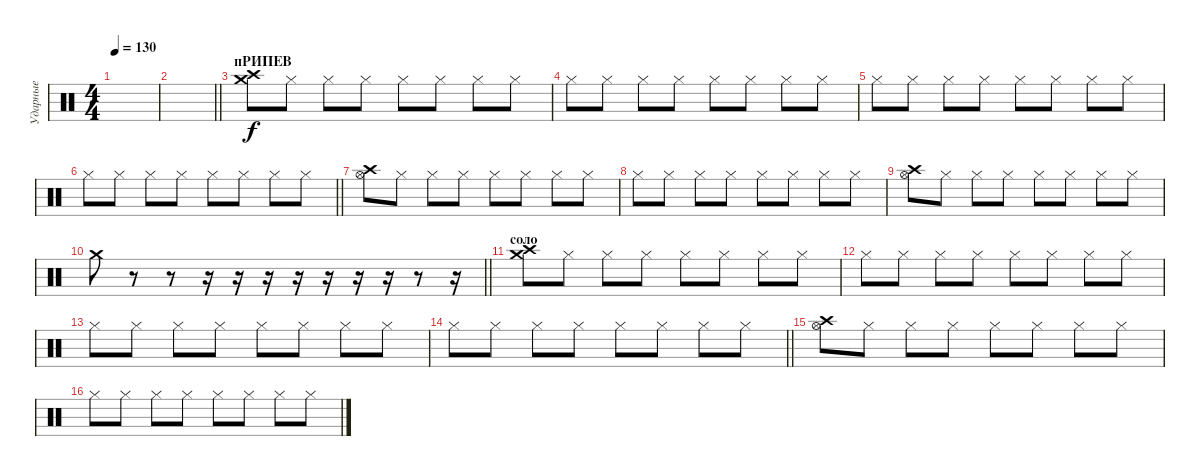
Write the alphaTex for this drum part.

\track ("Ударные" "Ударные") {instrument percussion}
\staff {score}
\articulation defaults
\ts (4 4)
\tempo 130
\clef neutral
\ks c
|
\barLineRight lightlight
|
\section ("" "пРИПЕВ")
("Crash high (hit)" "Crash medium (hit)").8 "Hi-Hat (closed)".8 "Hi-Hat (closed)".8 "Hi-Hat (closed)".8 "Hi-Hat (closed)".8 "Hi-Hat (closed)".8 "Hi-Hat (closed)".8 "Hi-Hat (closed)".8 |
"Hi-Hat (closed)".8 "Hi-Hat (closed)".8 "Hi-Hat (closed)".8 "Hi-Hat (closed)".8 "Hi-Hat (closed)".8 "Hi-Hat (closed)".8 "Hi-Hat (closed)".8 "Hi-Hat (closed)".8 |
"Hi-Hat (closed)".8 "Hi-Hat (closed)".8 "Hi-Hat (closed)".8 "Hi-Hat (closed)".8 "Hi-Hat (closed)".8 "Hi-Hat (closed)".8 "Hi-Hat (closed)".8 "Hi-Hat (closed)".8 |
\barLineRight lightlight "Hi-Hat (closed)".8 "Hi-Hat (closed)".8 "Hi-Hat (closed)".8 "Hi-Hat (closed)".8 "Hi-Hat (closed)".8 "Hi-Hat (closed)".8 "Hi-Hat (closed)".8 "Hi-Hat (closed)".8
|
("Hi-Hat (open)" "Crash high (hit)").8 "Hi-Hat (closed)".8 "Hi-Hat (closed)".8 "Hi-Hat (closed)".8 "Hi-Hat (closed)".8 "Hi-Hat (closed)".8 "Hi-Hat (closed)".8 "Hi-Hat (closed)".8 |
"Hi-Hat (closed)".8 "Hi-Hat (closed)".8 "Hi-Hat (closed)".8 "Hi-Hat (closed)".8 "Hi-Hat (closed)".8 "Hi-Hat (closed)".8 "Hi-Hat (closed)".8 "Hi-Hat (closed)".8 |
("Hi-Hat (open)" "Crash high (hit)").8 "Hi-Hat (closed)".8 "Hi-Hat (closed)".8 "Hi-Hat (closed)".8 "Hi-Hat (closed)".8 "Hi-Hat (closed)".8 "Hi-Hat (closed)".8 "Hi-Hat (closed)".8 |
\barLineRight lightlight "Crash medium (hit)".8
r.8 r.8 r.16 r.16 r.16 r.16 r.16 r.16 r.16 r.8 r.16 |
\section ("" "соло")
("Crash high (hit)" "Crash medium (hit)").8 "Hi-Hat (closed)".8 "Hi-Hat (closed)".8 "Hi-Hat (closed)".8 "Hi-Hat (closed)".8 "Hi-Hat (closed)".8 "Hi-Hat (closed)".8 "Hi-Hat (closed)".8 |
"Hi-Hat (closed)".8 "Hi-Hat (closed)".8 "Hi-Hat (closed)".8 "Hi-Hat (closed)".8 "Hi-Hat (closed)".8 "Hi-Hat (closed)".8 "Hi-Hat (closed)".8 "Hi-Hat (closed)".8 |
"Hi-Hat (closed)".8 "Hi-Hat (closed)".8 "Hi-Hat (closed)".8 "Hi-Hat (closed)".8 "Hi-Hat (closed)".8 "Hi-Hat (closed)".8 "Hi-Hat (closed)".8 "Hi-Hat (closed)".8 |
\barLineRight lightlight "Hi-Hat (closed)".8 "Hi-Hat (closed)".8 "Hi-Hat (closed)".8 "Hi-Hat (closed)".8 "Hi-Hat (closed)".8 "Hi-Hat (closed)".8 "Hi-Hat (closed)".8 "Hi-Hat (closed)".8
|
("Hi-Hat (open)" "Crash high (hit)").8 "Hi-Hat (closed)".8 "Hi-Hat (closed)".8 "Hi-Hat (closed)".8 "Hi-Hat (closed)".8 "Hi-Hat (closed)".8 "Hi-Hat (closed)".8 "Hi-Hat (closed)".8 |
"Hi-Hat (closed)".8 "Hi-Hat (closed)".8 "Hi-Hat (closed)".8 "Hi-Hat (closed)".8 "Hi-Hat (closed)".8 "Hi-Hat (closed)".8 "Hi-Hat (closed)".8 "Hi-Hat (closed)".8
